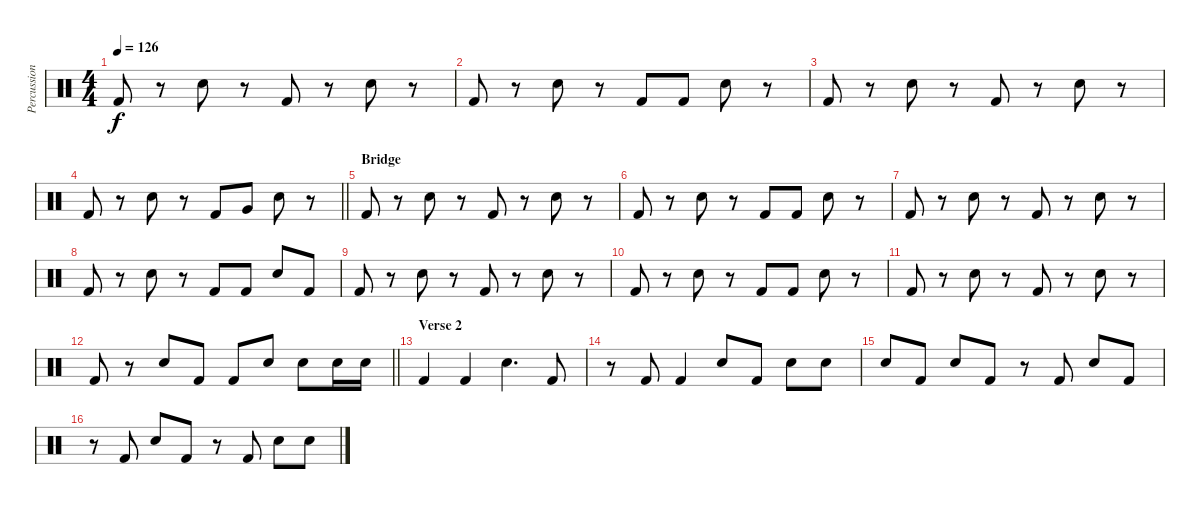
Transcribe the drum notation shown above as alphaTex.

\track ("Percussion" "Percussion") {instrument percussion}
\staff {score}
\articulation defaults
\ts (4 4)
\tempo 126
\clef neutral
\ks c "Kick (hit) 2".8{dy f}
r.8 "Snare (hit) 2".8 r.8 "Kick (hit) 2".8 r.8 "Snare (hit) 2".8 r.8 |
"Kick (hit) 2".8 r.8 "Snare (hit) 2".8 r.8 "Kick (hit) 2".8 "Kick (hit) 2".8 "Snare (hit) 2".8 r.8 |
"Kick (hit) 2".8 r.8 "Snare (hit) 2".8 r.8 "Kick (hit) 2".8 r.8 "Snare (hit) 2".8 r.8 |
\barLineRight lightlight "Kick (hit) 2".8
r.8 "Snare (hit) 2".8 r.8 "Kick (hit) 2".8 "Very Low Tom (hit)".8 "Snare (hit) 2".8 r.8 |
\section ("" "Bridge")
"Kick (hit) 2".8 r.8 "Snare (hit) 2".8 r.8 "Kick (hit) 2".8 r.8 "Snare (hit) 2".8 r.8 |
"Kick (hit) 2".8 r.8 "Snare (hit) 2".8 r.8 "Kick (hit) 2".8 "Kick (hit) 2".8 "Snare (hit) 2".8 r.8 |
"Kick (hit) 2".8 r.8 "Snare (hit) 2".8 r.8 "Kick (hit) 2".8 r.8 "Snare (hit) 2".8 r.8 |
"Kick (hit) 2".8 r.8 "Snare (hit) 2".8 r.8 "Kick (hit) 2".8 "Kick (hit) 2".8 "Snare (hit) 2".8 "Kick (hit) 2".8 |
"Kick (hit) 2".8 r.8 "Snare (hit) 2".8 r.8 "Kick (hit) 2".8 r.8 "Snare (hit) 2".8 r.8 |
"Kick (hit) 2".8 r.8 "Snare (hit) 2".8 r.8 "Kick (hit) 2".8 "Kick (hit) 2".8 "Snare (hit) 2".8 r.8 |
"Kick (hit) 2".8 r.8 "Snare (hit) 2".8 r.8 "Kick (hit) 2".8 r.8 "Snare (hit) 2".8 r.8 |
\barLineRight lightlight "Kick (hit) 2".8
r.8 "Snare (hit) 2".8 "Kick (hit) 2".8 "Kick (hit) 2".8 "Snare (hit) 2".8 "Snare (hit) 2".8 "Snare (hit) 2".16 "Snare (hit) 2".16 |
\section ("" "Verse 2")
"Kick (hit) 2".4 "Kick (hit) 2".4 "Snare (hit) 2".4{d} "Kick (hit) 2".8 |
r.8 "Kick (hit) 2".8 "Kick (hit) 2".4 "Snare (hit) 2".8 "Kick (hit) 2".8 "Snare (hit) 2".8 "Snare (hit) 2".8 |
"Snare (hit) 2".8 "Kick (hit) 2".8 "Snare (hit) 2".8 "Kick (hit) 2".8 r.8 "Kick (hit) 2".8 "Snare (hit) 2".8 "Kick (hit) 2".8 |
r.8 "Kick (hit) 2".8 "Snare (hit) 2".8 "Kick (hit) 2".8 r.8 "Kick (hit) 2".8 "Snare (hit) 2".8 "Snare (hit) 2".8
